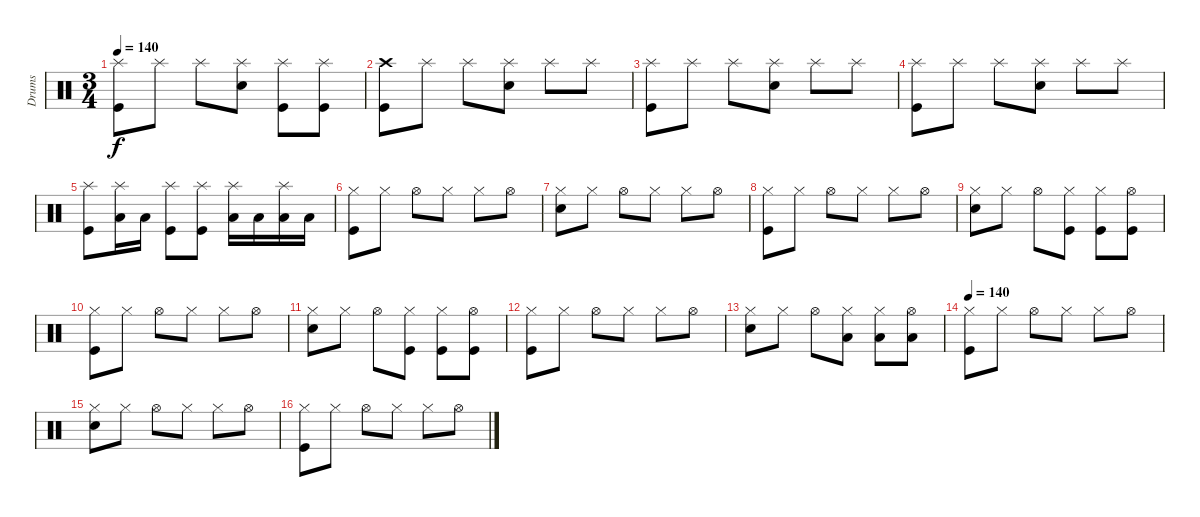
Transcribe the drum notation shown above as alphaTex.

\track ("Drums" "Drums") {instrument percussion}
\staff {score}
\articulation defaults
\ts (3 4)
\tempo 140
\clef neutral
\ks c
("Kick (hit)" "Splash (hit)").8{dy f} "Splash (hit)".8 "Splash (hit)".8 ("Snare (hit) 2" "Splash (hit)").8 ("Kick (hit)" "Splash (hit)").8 ("Kick (hit)" "Splash (hit)").8 |
("Kick (hit)" "Crash high (hit)").8 "Splash (hit)".8 "Splash (hit)".8 ("Snare (hit) 2" "Splash (hit)").8 "Splash (hit)".8 "Splash (hit)".8 |
("Kick (hit)" "Splash (hit)").8 "Splash (hit)".8 "Splash (hit)".8 ("Snare (hit) 2" "Splash (hit)").8 "Splash (hit)".8 "Splash (hit)".8 |
("Kick (hit)" "Splash (hit)").8 "Splash (hit)".8 "Splash (hit)".8 ("Snare (hit) 2" "Splash (hit)").8 "Splash (hit)".8 "Splash (hit)".8 |
("Kick (hit)" "Splash (hit)").8 ("Low Tom (hit)" "Splash (hit)").16 "Low Tom (hit)".16 ("Kick (hit)" "Splash (hit)").8 ("Kick (hit)" "Splash (hit)").8 ("Low Tom (hit)" "Splash (hit)").16 "Low Tom (hit)".16 ("Low Tom (hit)" "Splash (hit)").16 "Low Tom (hit)".16 |
("Kick (hit)" "Hi-Hat (closed)").8 "Hi-Hat (closed)".8 "Hi-Hat (open)".8 "Hi-Hat (closed)".8 "Hi-Hat (closed)".8 "Hi-Hat (open)".8 |
("Snare (hit) 2" "Hi-Hat (closed)").8 "Hi-Hat (closed)".8 "Hi-Hat (open)".8 "Hi-Hat (closed)".8 "Hi-Hat (closed)".8 "Hi-Hat (open)".8 |
("Kick (hit)" "Hi-Hat (closed)").8 "Hi-Hat (closed)".8 "Hi-Hat (open)".8 "Hi-Hat (closed)".8 "Hi-Hat (closed)".8 "Hi-Hat (open)".8 |
("Snare (hit) 2" "Hi-Hat (closed)").8 "Hi-Hat (closed)".8 "Hi-Hat (open)".8 ("Kick (hit)" "Hi-Hat (closed)").8 ("Kick (hit)" "Hi-Hat (closed)").8 ("Kick (hit)" "Hi-Hat (open)").8 |
("Kick (hit)" "Hi-Hat (closed)").8 "Hi-Hat (closed)".8 "Hi-Hat (open)".8 "Hi-Hat (closed)".8 "Hi-Hat (closed)".8 "Hi-Hat (open)".8 |
("Snare (hit) 2" "Hi-Hat (closed)").8 "Hi-Hat (closed)".8 "Hi-Hat (open)".8 ("Kick (hit)" "Hi-Hat (closed)").8 ("Kick (hit)" "Hi-Hat (closed)").8 ("Kick (hit)" "Hi-Hat (open)").8 |
("Kick (hit)" "Hi-Hat (closed)").8 "Hi-Hat (closed)".8 "Hi-Hat (open)".8 "Hi-Hat (closed)".8 "Hi-Hat (closed)".8 "Hi-Hat (open)".8 |
("Snare (hit) 2" "Hi-Hat (closed)").8 "Hi-Hat (closed)".8 "Hi-Hat (open)".8 ("Low Tom (hit)" "Hi-Hat (closed)").8 ("Low Tom (hit)" "Hi-Hat (closed)").8 ("Low Tom (hit)" "Hi-Hat (open)").8 |
\tempo 140
("Kick (hit)" "Hi-Hat (closed)").8 "Hi-Hat (closed)".8 "Hi-Hat (open)".8 "Hi-Hat (closed)".8 "Hi-Hat (closed)".8 "Hi-Hat (open)".8 |
("Snare (hit) 2" "Hi-Hat (closed)").8 "Hi-Hat (closed)".8 "Hi-Hat (open)".8 "Hi-Hat (closed)".8 "Hi-Hat (closed)".8 "Hi-Hat (open)".8 |
("Kick (hit)" "Hi-Hat (closed)").8 "Hi-Hat (closed)".8 "Hi-Hat (open)".8 "Hi-Hat (closed)".8 "Hi-Hat (closed)".8 "Hi-Hat (open)".8
